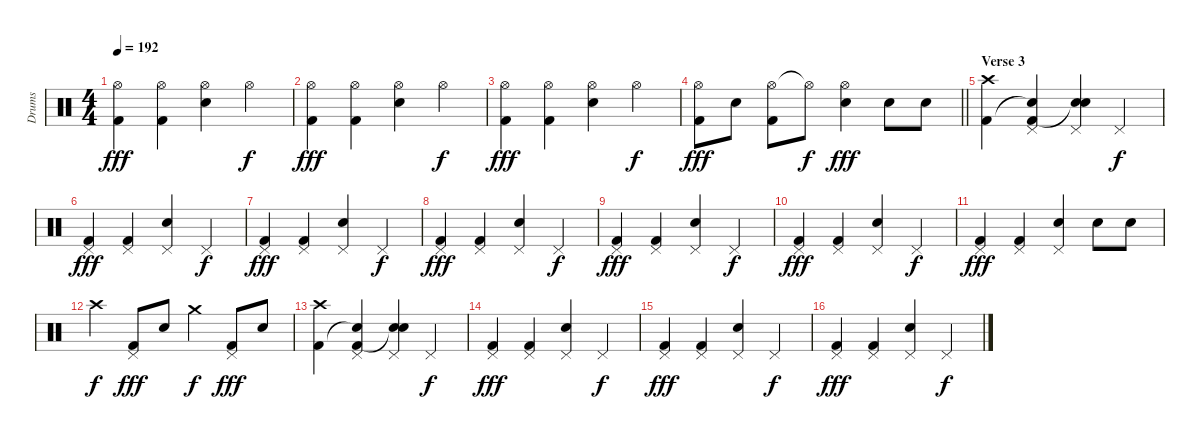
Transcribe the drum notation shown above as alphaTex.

\track ("Drums" "Drums") {instrument percussion}
\staff {score}
\articulation defaults
\ts (4 4)
\tempo 192
\clef neutral
\ks c
("Hi-Hat (open)" "Kick (hit) 2").4{dy fff} ("Hi-Hat (open)" "Kick (hit) 2").4 ("Hi-Hat (open)" "Snare (hit) 2").4 "Hi-Hat (open)".4{dy f} |
("Hi-Hat (open)" "Kick (hit) 2").4{dy fff} ("Hi-Hat (open)" "Kick (hit) 2").4 ("Hi-Hat (open)" "Snare (hit) 2").4 "Hi-Hat (open)".4{dy f} |
("Hi-Hat (open)" "Kick (hit) 2").4{dy fff} ("Hi-Hat (open)" "Kick (hit) 2").4 ("Hi-Hat (open)" "Snare (hit) 2").4 "Hi-Hat (open)".4{dy f} |
\barLineRight lightlight
("Hi-Hat (open)" "Kick (hit) 2").8{dy fff} "Snare (hit) 2".8 ("Hi-Hat (open)" "Kick (hit) 2").8 "Hi-Hat (open)"{t}.8{dy f} ("Hi-Hat (open)" "Snare (hit) 2").4{dy fff} "Snare (hit) 2".8 "Snare (hit) 2".8 |
\section ("" "Verse 3")
("Crash high (hit)" "Kick (hit) 2").4 ("Pedal Hi-Hat (hit)" "Snare (hit)"{t} "Kick (hit) 2").4 ("Pedal Hi-Hat (hit)" "Snare (hit) 2" "Snare (hit)"{t}).4 "Pedal Hi-Hat (hit)".4{dy f} |
("Pedal Hi-Hat (hit)" "Kick (hit) 2").4{dy fff} ("Pedal Hi-Hat (hit)" "Kick (hit) 2").4 ("Pedal Hi-Hat (hit)" "Snare (hit) 2").4 "Pedal Hi-Hat (hit)".4{dy f} |
("Pedal Hi-Hat (hit)" "Kick (hit) 2").4{dy fff} ("Pedal Hi-Hat (hit)" "Kick (hit) 2").4 ("Pedal Hi-Hat (hit)" "Snare (hit) 2").4 "Pedal Hi-Hat (hit)".4{dy f} |
("Pedal Hi-Hat (hit)" "Kick (hit) 2").4{dy fff} ("Pedal Hi-Hat (hit)" "Kick (hit) 2").4 ("Pedal Hi-Hat (hit)" "Snare (hit) 2").4 "Pedal Hi-Hat (hit)".4{dy f} |
("Pedal Hi-Hat (hit)" "Kick (hit) 2").4{dy fff} ("Pedal Hi-Hat (hit)" "Kick (hit) 2").4 ("Pedal Hi-Hat (hit)" "Snare (hit) 2").4 "Pedal Hi-Hat (hit)".4{dy f} |
("Pedal Hi-Hat (hit)" "Kick (hit) 2").4{dy fff} ("Pedal Hi-Hat (hit)" "Kick (hit) 2").4 ("Pedal Hi-Hat (hit)" "Snare (hit) 2").4 "Pedal Hi-Hat (hit)".4{dy f} |
("Pedal Hi-Hat (hit)" "Kick (hit) 2").4{dy fff} ("Pedal Hi-Hat (hit)" "Kick (hit) 2").4 ("Pedal Hi-Hat (hit)" "Snare (hit) 2").4 "Snare (hit) 2".8 "Snare (hit) 2".8 |
"Crash high (hit)".4{dy f} ("Pedal Hi-Hat (hit)" "Kick (hit) 2").8{dy fff} "Snare (hit) 2".8 "Crash medium (hit)".4{dy f} ("Pedal Hi-Hat (hit)" "Kick (hit) 2").8{dy fff} "Snare (hit) 2".8 |
("Crash high (hit)" "Kick (hit) 2").4 ("Pedal Hi-Hat (hit)" "Snare (hit)"{t} "Kick (hit) 2").4 ("Pedal Hi-Hat (hit)" "Snare (hit) 2" "Snare (hit)"{t}).4 "Pedal Hi-Hat (hit)".4{dy f} |
("Pedal Hi-Hat (hit)" "Kick (hit) 2").4{dy fff} ("Pedal Hi-Hat (hit)" "Kick (hit) 2").4 ("Pedal Hi-Hat (hit)" "Snare (hit) 2").4 "Pedal Hi-Hat (hit)".4{dy f} |
("Pedal Hi-Hat (hit)" "Kick (hit) 2").4{dy fff} ("Pedal Hi-Hat (hit)" "Kick (hit) 2").4 ("Pedal Hi-Hat (hit)" "Snare (hit) 2").4 "Pedal Hi-Hat (hit)".4{dy f} |
("Pedal Hi-Hat (hit)" "Kick (hit) 2").4{dy fff} ("Pedal Hi-Hat (hit)" "Kick (hit) 2").4 ("Pedal Hi-Hat (hit)" "Snare (hit) 2").4 "Pedal Hi-Hat (hit)".4{dy f}
